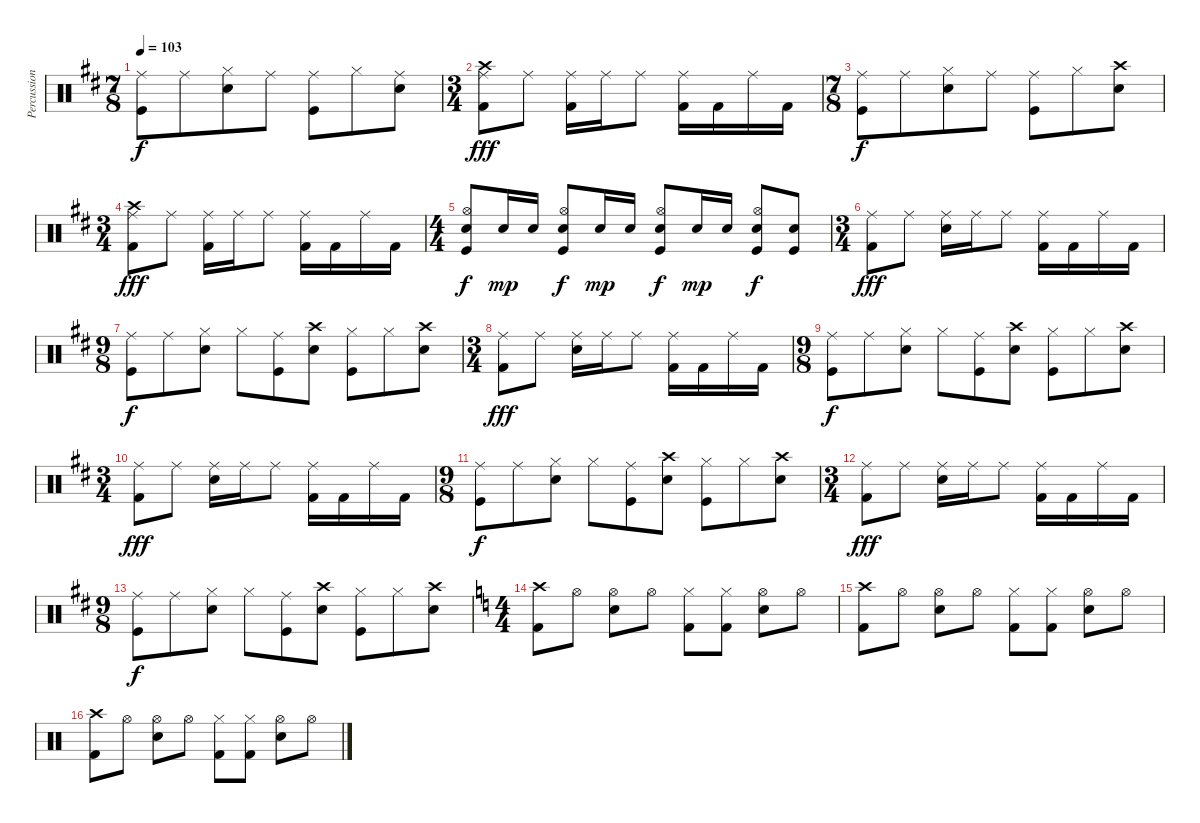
\track ("Percussion" "Percussion") {instrument percussion}
\staff {score}
\articulation defaults
\ts (7 8)
\tempo 103
\clef neutral
\ks d
("Ride (middle)" "Kick (hit)").8{dy f} "Ride (middle)".8 ("Hi-Hat (closed)" "Snare (hit) 2").8 "Ride (middle)".8 ("Ride (middle)" "Kick (hit)").8 "Hi-Hat (closed)".8 ("Ride (middle)" "Snare (hit) 2").8 |
\ts (3 4)
("Ride (middle)" "Kick (hit) 2" "Crash high (hit)").8{dy fff} "Ride (middle)".8 ("Ride (middle)" "Kick (hit) 2").16 "Ride (middle)".16 "Ride (middle)".8 ("Ride (middle)" "Kick (hit) 2").16 "Kick (hit) 2".16 "Ride (middle)".16 "Kick (hit) 2".16 |
\ts (7 8)
("Ride (middle)" "Kick (hit)").8{dy f} "Ride (middle)".8 ("Hi-Hat (closed)" "Snare (hit) 2").8 "Ride (middle)".8 ("Ride (middle)" "Kick (hit)").8 "Hi-Hat (closed)".8 ("Crash high (hit)" "Snare (hit) 2").8 |
\ts (3 4)
("Ride (middle)" "Kick (hit) 2" "Crash high (hit)").8{dy fff} "Ride (middle)".8 ("Ride (middle)" "Kick (hit) 2").16 "Ride (middle)".16 "Ride (middle)".8 ("Ride (middle)" "Kick (hit) 2").16 "Kick (hit) 2".16 "Ride (middle)".16 "Kick (hit) 2".16 |
\ts (4 4)
("Hi-Hat (open)" "Electric Snare (hit)" "Kick (hit)").8{dy f} "Electric Snare (hit)".16{dy mp} "Electric Snare (hit)".16 ("Hi-Hat (open)" "Electric Snare (hit)" "Kick (hit)").8{dy f} "Electric Snare (hit)".16{dy mp} "Electric Snare (hit)".16 ("Hi-Hat (open)" "Electric Snare (hit)" "Kick (hit)").8{dy f} "Electric Snare (hit)".16{dy mp} "Electric Snare (hit)".16 ("Hi-Hat (open)" "Electric Snare (hit)" "Kick (hit)").8{dy f} ("Electric Snare (hit)" "Kick (hit)").8 |
\ts (3 4)
("Ride (middle)" "Kick (hit) 2").8{dy fff} "Ride (middle)".8 ("Electric Snare (hit)" "Ride (middle)").16 "Ride (middle)".16 "Ride (middle)".8 ("Ride (middle)" "Kick (hit) 2").16 "Kick (hit) 2".16 "Ride (middle)".16 "Kick (hit) 2".16 |
\ts (9 8)
("Ride (middle)" "Kick (hit)").8{dy f} "Ride (middle)".8 ("Hi-Hat (closed)" "Snare (hit) 2").8 "Hi-Hat (closed)".8 ("Ride (middle)" "Kick (hit)").8 ("Crash high (hit)" "Snare (hit) 2").8 ("Hi-Hat (closed)" "Kick (hit)").8 "Hi-Hat (closed)".8 ("Crash high (hit)" "Snare (hit) 2").8 |
\ts (3 4)
("Ride (middle)" "Kick (hit) 2").8{dy fff} "Ride (middle)".8 ("Electric Snare (hit)" "Ride (middle)").16 "Ride (middle)".16 "Ride (middle)".8 ("Ride (middle)" "Kick (hit) 2").16 "Kick (hit) 2".16 "Ride (middle)".16 "Kick (hit) 2".16 |
\ts (9 8)
("Ride (middle)" "Kick (hit)").8{dy f} "Ride (middle)".8 ("Hi-Hat (closed)" "Snare (hit) 2").8 "Hi-Hat (closed)".8 ("Ride (middle)" "Kick (hit)").8 ("Crash high (hit)" "Snare (hit) 2").8 ("Hi-Hat (closed)" "Kick (hit)").8 "Hi-Hat (closed)".8 ("Crash high (hit)" "Snare (hit) 2").8 |
\ts (3 4)
("Ride (middle)" "Kick (hit) 2").8{dy fff} "Ride (middle)".8 ("Electric Snare (hit)" "Ride (middle)").16 "Ride (middle)".16 "Ride (middle)".8 ("Ride (middle)" "Kick (hit) 2").16 "Kick (hit) 2".16 "Ride (middle)".16 "Kick (hit) 2".16 |
\ts (9 8)
("Ride (middle)" "Kick (hit)").8{dy f} "Ride (middle)".8 ("Hi-Hat (closed)" "Snare (hit) 2").8 "Hi-Hat (closed)".8 ("Ride (middle)" "Kick (hit)").8 ("Crash high (hit)" "Snare (hit) 2").8 ("Hi-Hat (closed)" "Kick (hit)").8 "Hi-Hat (closed)".8 ("Crash high (hit)" "Snare (hit) 2").8 |
\ts (3 4)
("Ride (middle)" "Kick (hit) 2").8{dy fff} "Ride (middle)".8 ("Electric Snare (hit)" "Ride (middle)").16 "Ride (middle)".16 "Ride (middle)".8 ("Ride (middle)" "Kick (hit) 2").16 "Kick (hit) 2".16 "Ride (middle)".16 "Kick (hit) 2".16 |
\ts (9 8)
("Ride (middle)" "Kick (hit)").8{dy f} "Ride (middle)".8 ("Hi-Hat (closed)" "Snare (hit) 2").8 "Hi-Hat (closed)".8 ("Ride (middle)" "Kick (hit)").8 ("Crash high (hit)" "Snare (hit) 2").8 ("Hi-Hat (closed)" "Kick (hit)").8 "Hi-Hat (closed)".8 ("Crash high (hit)" "Snare (hit) 2").8 |
\ts (4 4)
\ks c
("Crash high (hit)" "Kick (hit) 2").8 "Hi-Hat (open)".8 ("Hi-Hat (open)" "Snare (hit) 2").8 "Hi-Hat (open)".8 ("Hi-Hat (closed)" "Kick (hit) 2").8 ("Hi-Hat (closed)" "Kick (hit) 2").8 ("Hi-Hat (open)" "Snare (hit) 2").8 "Hi-Hat (open)".8 |
("Crash high (hit)" "Kick (hit) 2").8 "Hi-Hat (open)".8 ("Hi-Hat (open)" "Snare (hit) 2").8 "Hi-Hat (open)".8 ("Hi-Hat (closed)" "Kick (hit) 2").8 ("Hi-Hat (closed)" "Kick (hit) 2").8 ("Hi-Hat (open)" "Snare (hit) 2").8 "Hi-Hat (open)".8 |
("Crash high (hit)" "Kick (hit) 2").8 "Hi-Hat (open)".8 ("Hi-Hat (open)" "Snare (hit) 2").8 "Hi-Hat (open)".8 ("Hi-Hat (closed)" "Kick (hit) 2").8 ("Hi-Hat (closed)" "Kick (hit) 2").8 ("Hi-Hat (open)" "Snare (hit) 2").8 "Hi-Hat (open)".8
